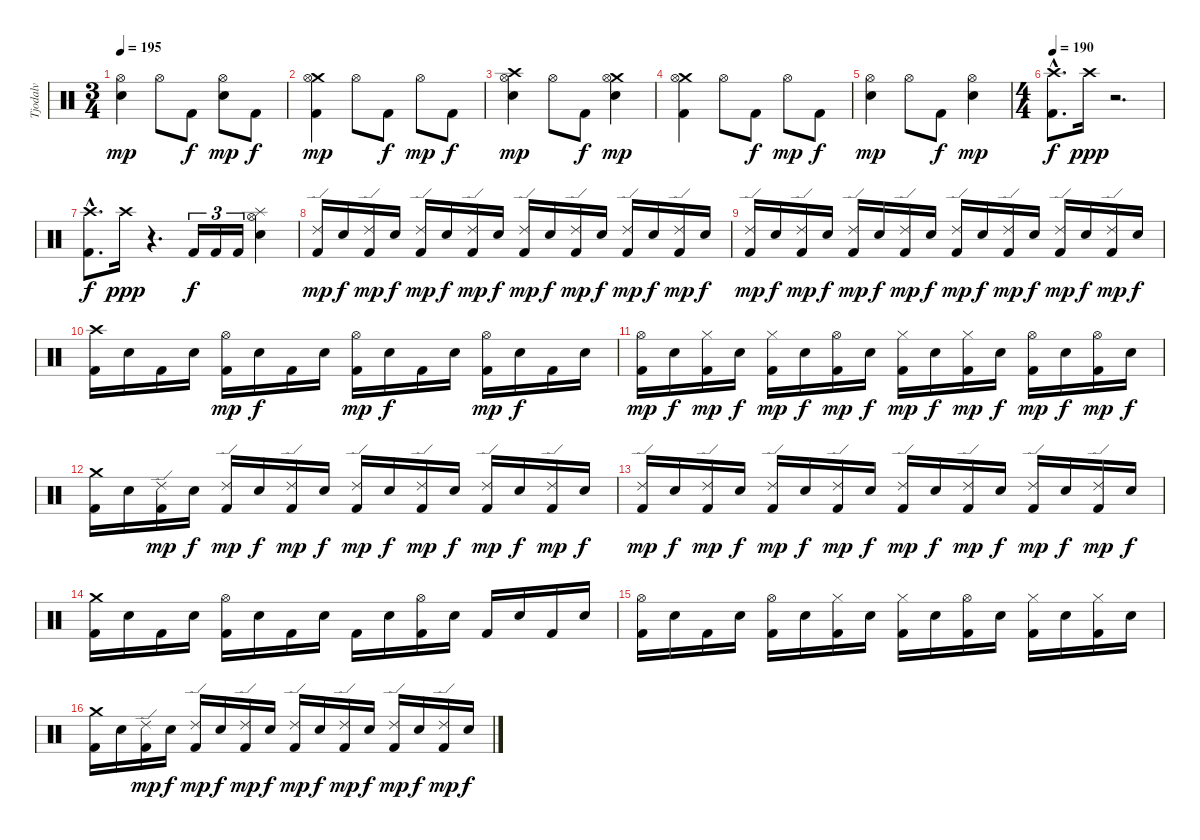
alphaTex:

\track ("Tjodalv" "Tjodalv") {instrument percussion}
\staff {score}
\articulation defaults
\ts (3 4)
\tempo 195
\clef neutral
\ks c
("Hi-Hat (open)" "Electric Snare (hit)").4{dy mp} "Hi-Hat (open)".8 "Kick (hit) 2".8{dy f} ("Hi-Hat (open)" "Electric Snare (hit)").8{dy mp} "Kick (hit) 2".8{dy f} |
("Crash medium (hit)" "Hi-Hat (open)" "Kick (hit) 2").4{dy mp} "Hi-Hat (open)".8 "Kick (hit) 2".8{dy f} "Hi-Hat (open)".8{dy mp} "Kick (hit) 2".8{dy f} |
("Crash high (hit)" "Hi-Hat (open)" "Electric Snare (hit)").4{dy mp} "Hi-Hat (open)".8 "Kick (hit) 2".8{dy f} ("Crash medium (hit)" "Hi-Hat (open)" "Electric Snare (hit)").4{dy mp} |
("Crash medium (hit)" "Hi-Hat (open)" "Kick (hit) 2").4 "Hi-Hat (open)".8 "Kick (hit) 2".8{dy f} "Hi-Hat (open)".8{dy mp} "Kick (hit) 2".8{dy f} |
("Hi-Hat (open)" "Electric Snare (hit)").4{dy mp} "Hi-Hat (open)".8 "Kick (hit) 2".8{dy f} ("Hi-Hat (open)" "Electric Snare (hit)").4{dy mp} |
\ts (4 4)
\tempo 190
("Crash high (hit)"{hac} "Kick (hit) 2"{hac}).8{d dy f} "Crash high (hit)".16{dy ppp} r.2{d} |
("Crash high (hit)"{hac} "Kick (hit) 2"{hac}).8{d dy f} "Crash high (hit)".16{dy ppp} r.4{d} "Kick (hit) 2".16{tu (3 2) dy f} "Kick (hit) 2".16{tu (3 2)} "Kick (hit) 2".16{tu (3 2)} ("Splash (hit)" "Hi-Hat (open)" "Electric Snare (hit)").4 |
("Ride (edge) 2" "Kick (hit) 2").16{dy mp} "Electric Snare (hit)".16{dy f} ("Ride (edge) 2" "Kick (hit) 2").16{dy mp} "Electric Snare (hit)".16{dy f} ("Ride (edge) 2" "Kick (hit) 2").16{dy mp} "Electric Snare (hit)".16{dy f} ("Ride (edge) 2" "Kick (hit) 2").16{dy mp} "Electric Snare (hit)".16{dy f} ("Ride (edge) 2" "Kick (hit) 2").16{dy mp} "Electric Snare (hit)".16{dy f} ("Ride (edge) 2" "Kick (hit) 2").16{dy mp} "Electric Snare (hit)".16{dy f} ("Ride (edge) 2" "Kick (hit) 2").16{dy mp} "Electric Snare (hit)".16{dy f} ("Ride (edge) 2" "Kick (hit) 2").16{dy mp} "Electric Snare (hit)".16{dy f} |
("Ride (edge) 2" "Kick (hit) 2").16{dy mp} "Electric Snare (hit)".16{dy f} ("Ride (edge) 2" "Kick (hit) 2").16{dy mp} "Electric Snare (hit)".16{dy f} ("Ride (edge) 2" "Kick (hit) 2").16{dy mp} "Electric Snare (hit)".16{dy f} ("Ride (edge) 2" "Kick (hit) 2").16{dy mp} "Electric Snare (hit)".16{dy f} ("Ride (edge) 2" "Kick (hit) 2").16{dy mp} "Electric Snare (hit)".16{dy f} ("Ride (edge) 2" "Kick (hit) 2").16{dy mp} "Electric Snare (hit)".16{dy f} ("Ride (edge) 2" "Kick (hit) 2").16{dy mp} "Electric Snare (hit)".16{dy f} ("Ride (edge) 2" "Kick (hit) 2").16{dy mp} "Electric Snare (hit)".16{dy f} |
("Crash high (hit)" "Kick (hit) 2").16 "Electric Snare (hit)".16 "Kick (hit) 2".16 "Electric Snare (hit)".16 ("Hi-Hat (open)" "Kick (hit) 2").16{dy mp} "Electric Snare (hit)".16{dy f} "Kick (hit) 2".16 "Electric Snare (hit)".16 ("Hi-Hat (open)" "Kick (hit) 2").16{dy mp} "Electric Snare (hit)".16{dy f} "Kick (hit) 2".16 "Electric Snare (hit)".16 ("Hi-Hat (open)" "Kick (hit) 2").16{dy mp} "Electric Snare (hit)".16{dy f} "Kick (hit) 2".16 "Electric Snare (hit)".16 |
("Hi-Hat (open)" "Kick (hit) 2").16{dy mp} "Electric Snare (hit)".16{dy f} ("Hi-Hat (closed)" "Kick (hit) 2").16{dy mp} "Electric Snare (hit)".16{dy f} ("Hi-Hat (closed)" "Kick (hit) 2").16{dy mp} "Electric Snare (hit)".16{dy f} ("Hi-Hat (open)" "Kick (hit) 2").16{dy mp} "Electric Snare (hit)".16{dy f} ("Hi-Hat (closed)" "Kick (hit) 2").16{dy mp} "Electric Snare (hit)".16{dy f} ("Hi-Hat (closed)" "Kick (hit) 2").16{dy mp} "Electric Snare (hit)".16{dy f} ("Hi-Hat (open)" "Kick (hit) 2").16{dy mp} "Electric Snare (hit)".16{dy f} ("Hi-Hat (open)" "Kick (hit) 2").16{dy mp} "Electric Snare (hit)".16{dy f} |
("Crash medium (hit)" "Kick (hit) 2").16 "Electric Snare (hit)".16 ("Ride (edge) 2" "Kick (hit) 2").16{dy mp} "Electric Snare (hit)".16{dy f} ("Ride (edge) 2" "Kick (hit) 2").16{dy mp} "Electric Snare (hit)".16{dy f} ("Ride (edge) 2" "Kick (hit) 2").16{dy mp} "Electric Snare (hit)".16{dy f} ("Ride (edge) 2" "Kick (hit) 2").16{dy mp} "Electric Snare (hit)".16{dy f} ("Ride (edge) 2" "Kick (hit) 2").16{dy mp} "Electric Snare (hit)".16{dy f} ("Ride (edge) 2" "Kick (hit) 2").16{dy mp} "Electric Snare (hit)".16{dy f} ("Ride (edge) 2" "Kick (hit) 2").16{dy mp} "Electric Snare (hit)".16{dy f} |
("Ride (edge) 2" "Kick (hit) 2").16{dy mp} "Electric Snare (hit)".16{dy f} ("Ride (edge) 2" "Kick (hit) 2").16{dy mp} "Electric Snare (hit)".16{dy f} ("Ride (edge) 2" "Kick (hit) 2").16{dy mp} "Electric Snare (hit)".16{dy f} ("Ride (edge) 2" "Kick (hit) 2").16{dy mp} "Electric Snare (hit)".16{dy f} ("Ride (edge) 2" "Kick (hit) 2").16{dy mp} "Electric Snare (hit)".16{dy f} ("Ride (edge) 2" "Kick (hit) 2").16{dy mp} "Electric Snare (hit)".16{dy f} ("Ride (edge) 2" "Kick (hit) 2").16{dy mp} "Electric Snare (hit)".16{dy f} ("Ride (edge) 2" "Kick (hit) 2").16{dy mp} "Electric Snare (hit)".16{dy f} |
("Crash medium (hit)" "Kick (hit) 2").16 "Electric Snare (hit)".16 "Kick (hit) 2".16 "Electric Snare (hit)".16 ("Hi-Hat (open)" "Kick (hit) 2").16 "Electric Snare (hit)".16 "Kick (hit) 2".16 "Electric Snare (hit)".16 "Kick (hit) 2".16 "Electric Snare (hit)".16 ("Hi-Hat (open)" "Kick (hit) 2").16 "Electric Snare (hit)".16 "Kick (hit) 2".16 "Electric Snare (hit)".16 "Kick (hit) 2".16 "Electric Snare (hit)".16 |
("Hi-Hat (open)" "Kick (hit) 2").16 "Electric Snare (hit)".16 "Kick (hit) 2".16 "Electric Snare (hit)".16 ("Hi-Hat (open)" "Kick (hit) 2").16 "Electric Snare (hit)".16 ("Hi-Hat (closed)" "Kick (hit) 2").16 "Electric Snare (hit)".16 ("Hi-Hat (closed)" "Kick (hit) 2").16 "Electric Snare (hit)".16 ("Hi-Hat (open)" "Kick (hit) 2").16 "Electric Snare (hit)".16 ("Hi-Hat (closed)" "Kick (hit) 2").16 "Electric Snare (hit)".16 ("Hi-Hat (closed)" "Kick (hit) 2").16 "Electric Snare (hit)".16 |
("Crash medium (hit)" "Kick (hit) 2").16 "Electric Snare (hit)".16 ("Ride (edge) 2" "Kick (hit) 2").16{dy mp} "Electric Snare (hit)".16{dy f} ("Ride (edge) 2" "Kick (hit) 2").16{dy mp} "Electric Snare (hit)".16{dy f} ("Ride (edge) 2" "Kick (hit) 2").16{dy mp} "Electric Snare (hit)".16{dy f} ("Ride (edge) 2" "Kick (hit) 2").16{dy mp} "Electric Snare (hit)".16{dy f} ("Ride (edge) 2" "Kick (hit) 2").16{dy mp} "Electric Snare (hit)".16{dy f} ("Ride (edge) 2" "Kick (hit) 2").16{dy mp} "Electric Snare (hit)".16{dy f} ("Ride (edge) 2" "Kick (hit) 2").16{dy mp} "Electric Snare (hit)".16{dy f}
